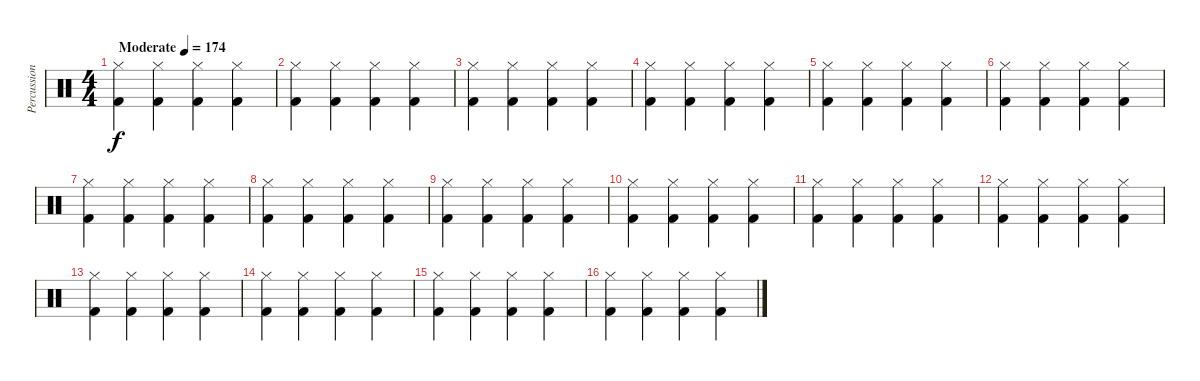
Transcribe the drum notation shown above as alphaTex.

\track ("Percussion" "Percussion") {instrument percussion}
\staff {score}
\articulation defaults
\ts (4 4)
\tempo (174 "Moderate")
\clef neutral
\ks c
("Hi-Hat (closed)" "Kick (hit) 2").4{dy f} ("Hi-Hat (closed)" "Kick (hit) 2").4 ("Hi-Hat (closed)" "Kick (hit) 2").4 ("Hi-Hat (closed)" "Kick (hit) 2").4 |
("Hi-Hat (closed)" "Kick (hit) 2").4 ("Hi-Hat (closed)" "Kick (hit) 2").4 ("Hi-Hat (closed)" "Kick (hit) 2").4 ("Hi-Hat (closed)" "Kick (hit) 2").4 |
("Hi-Hat (closed)" "Kick (hit) 2").4 ("Hi-Hat (closed)" "Kick (hit) 2").4 ("Hi-Hat (closed)" "Kick (hit) 2").4 ("Hi-Hat (closed)" "Kick (hit) 2").4 |
("Hi-Hat (closed)" "Kick (hit) 2").4 ("Hi-Hat (closed)" "Kick (hit) 2").4 ("Hi-Hat (closed)" "Kick (hit) 2").4 ("Hi-Hat (closed)" "Kick (hit) 2").4 |
("Hi-Hat (closed)" "Kick (hit) 2").4 ("Hi-Hat (closed)" "Kick (hit) 2").4 ("Hi-Hat (closed)" "Kick (hit) 2").4 ("Hi-Hat (closed)" "Kick (hit) 2").4 |
("Hi-Hat (closed)" "Kick (hit) 2").4 ("Hi-Hat (closed)" "Kick (hit) 2").4 ("Hi-Hat (closed)" "Kick (hit) 2").4 ("Hi-Hat (closed)" "Kick (hit) 2").4 |
("Hi-Hat (closed)" "Kick (hit) 2").4 ("Hi-Hat (closed)" "Kick (hit) 2").4 ("Hi-Hat (closed)" "Kick (hit) 2").4 ("Hi-Hat (closed)" "Kick (hit) 2").4 |
("Hi-Hat (closed)" "Kick (hit) 2").4 ("Hi-Hat (closed)" "Kick (hit) 2").4 ("Hi-Hat (closed)" "Kick (hit) 2").4 ("Hi-Hat (closed)" "Kick (hit) 2").4 |
("Hi-Hat (closed)" "Kick (hit) 2").4 ("Hi-Hat (closed)" "Kick (hit) 2").4 ("Hi-Hat (closed)" "Kick (hit) 2").4 ("Hi-Hat (closed)" "Kick (hit) 2").4 |
("Hi-Hat (closed)" "Kick (hit) 2").4 ("Hi-Hat (closed)" "Kick (hit) 2").4 ("Hi-Hat (closed)" "Kick (hit) 2").4 ("Hi-Hat (closed)" "Kick (hit) 2").4 |
("Hi-Hat (closed)" "Kick (hit) 2").4 ("Hi-Hat (closed)" "Kick (hit) 2").4 ("Hi-Hat (closed)" "Kick (hit) 2").4 ("Hi-Hat (closed)" "Kick (hit) 2").4 |
("Hi-Hat (closed)" "Kick (hit) 2").4 ("Hi-Hat (closed)" "Kick (hit) 2").4 ("Hi-Hat (closed)" "Kick (hit) 2").4 ("Hi-Hat (closed)" "Kick (hit) 2").4 |
("Hi-Hat (closed)" "Kick (hit) 2").4 ("Hi-Hat (closed)" "Kick (hit) 2").4 ("Hi-Hat (closed)" "Kick (hit) 2").4 ("Hi-Hat (closed)" "Kick (hit) 2").4 |
("Hi-Hat (closed)" "Kick (hit) 2").4 ("Hi-Hat (closed)" "Kick (hit) 2").4 ("Hi-Hat (closed)" "Kick (hit) 2").4 ("Hi-Hat (closed)" "Kick (hit) 2").4 |
("Hi-Hat (closed)" "Kick (hit) 2").4 ("Hi-Hat (closed)" "Kick (hit) 2").4 ("Hi-Hat (closed)" "Kick (hit) 2").4 ("Hi-Hat (closed)" "Kick (hit) 2").4 |
("Hi-Hat (closed)" "Kick (hit) 2").4 ("Hi-Hat (closed)" "Kick (hit) 2").4 ("Hi-Hat (closed)" "Kick (hit) 2").4 ("Hi-Hat (closed)" "Kick (hit) 2").4
